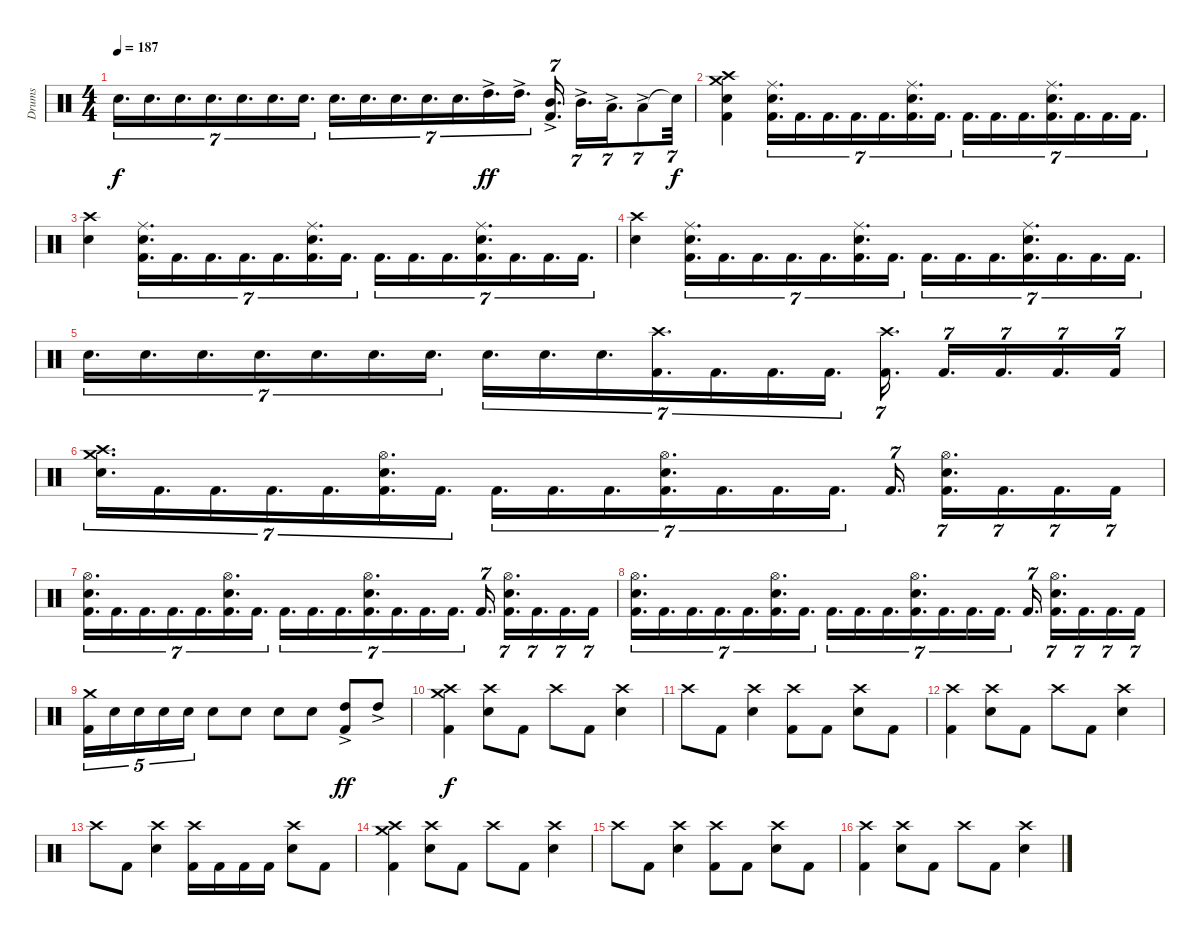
\track ("Drums" "Drums") {instrument percussion}
\staff {score}
\articulation defaults
\ts (4 4)
\tempo 187
\clef neutral
\ks c "Snare (hit) 2".16{d tu (7 4) dy f} "Snare (hit) 2".16{d tu (7 4)} "Snare (hit) 2".16{d tu (7 4)} "Snare (hit) 2".16{d tu (7 4)} "Snare (hit) 2".16{d tu (7 4)} "Snare (hit) 2".16{d tu (7 4)} "Snare (hit) 2".16{d tu (7 4)} "Snare (hit) 2".16{d tu (7 4)} "Snare (hit) 2".16{d tu (7 4)} "Snare (hit) 2".16{d tu (7 4)} "Snare (hit) 2".16{d tu (7 4)} "Snare (hit) 2".16{d tu (7 4)} "High Tom (hit)"{ac}.16{d tu (7 4) dy ff} "High Tom (hit)"{ac}.16{d tu (7 4)}
("Mid Tom (hit)"{ac} "Kick (hit) 2").16{d tu (7 4)} "Mid Tom (hit)"{ac}.16{d tu (7 4)} "Low Tom (hit)"{ac}.16{d tu (7 4)} "Low Tom (hit)"{ac}.8{tu (7 4)} "Snare (hit)"{t}.32{tu (7 4) dy f} |
("Crash high (hit)" "Crash medium (hit)" "Kick (hit) 2" "Snare (hit) 2").4 ("Ride (middle)" "Snare (hit) 2" "Kick (hit) 2").16{d tu (7 4)} "Kick (hit) 2".16{d tu (7 4)} "Kick (hit) 2".16{d tu (7 4)} "Kick (hit) 2".16{d tu (7 4)} "Kick (hit) 2".16{d tu (7 4)} ("Ride (middle)" "Snare (hit) 2" "Kick (hit) 2").16{d tu (7 4)} "Kick (hit) 2".16{d tu (7 4)} "Kick (hit) 2".16{d tu (7 4)} "Kick (hit) 2".16{d tu (7 4)} "Kick (hit) 2".16{d tu (7 4)} ("Kick (hit) 2" "Snare (hit) 2" "Ride (middle)").16{d tu (7 4)} "Kick (hit) 2".16{d tu (7 4)} "Kick (hit) 2".16{d tu (7 4)} "Kick (hit) 2".16{d tu (7 4)} |
("Crash high (hit)" "Snare (hit) 2").4 ("Ride (middle)" "Snare (hit) 2" "Kick (hit) 2").16{d tu (7 4)} "Kick (hit) 2".16{d tu (7 4)} "Kick (hit) 2".16{d tu (7 4)} "Kick (hit) 2".16{d tu (7 4)} "Kick (hit) 2".16{d tu (7 4)} ("Ride (middle)" "Snare (hit) 2" "Kick (hit) 2").16{d tu (7 4)} "Kick (hit) 2".16{d tu (7 4)} "Kick (hit) 2".16{d tu (7 4)} "Kick (hit) 2".16{d tu (7 4)} "Kick (hit) 2".16{d tu (7 4)} ("Kick (hit) 2" "Snare (hit) 2" "Ride (middle)").16{d tu (7 4)} "Kick (hit) 2".16{d tu (7 4)} "Kick (hit) 2".16{d tu (7 4)} "Kick (hit) 2".16{d tu (7 4)} |
("Crash high (hit)" "Snare (hit) 2").4 ("Ride (middle)" "Snare (hit) 2" "Kick (hit) 2").16{d tu (7 4)} "Kick (hit) 2".16{d tu (7 4)} "Kick (hit) 2".16{d tu (7 4)} "Kick (hit) 2".16{d tu (7 4)} "Kick (hit) 2".16{d tu (7 4)} ("Ride (middle)" "Snare (hit) 2" "Kick (hit) 2").16{d tu (7 4)} "Kick (hit) 2".16{d tu (7 4)} "Kick (hit) 2".16{d tu (7 4)} "Kick (hit) 2".16{d tu (7 4)} "Kick (hit) 2".16{d tu (7 4)} ("Kick (hit) 2" "Snare (hit) 2" "Ride (middle)").16{d tu (7 4)} "Kick (hit) 2".16{d tu (7 4)} "Kick (hit) 2".16{d tu (7 4)} "Kick (hit) 2".16{d tu (7 4)} |
"Snare (hit) 2".16{d tu (7 4)} "Snare (hit) 2".16{d tu (7 4)} "Snare (hit) 2".16{d tu (7 4)} "Snare (hit) 2".16{d tu (7 4)} "Snare (hit) 2".16{d tu (7 4)} "Snare (hit) 2".16{d tu (7 4)} "Snare (hit) 2".16{d tu (7 4)} "Snare (hit) 2".16{d tu (7 4)} "Snare (hit) 2".16{d tu (7 4)} "Snare (hit) 2".16{d tu (7 4)} ("Kick (hit) 2" "Crash high (hit)").16{d tu (7 4)} "Kick (hit) 2".16{d tu (7 4)} "Kick (hit) 2".16{d tu (7 4)} "Kick (hit) 2".16{d tu (7 4)} ("Kick (hit) 2" "Crash high (hit)").16{d tu (7 4)} "Kick (hit) 2".16{d tu (7 4)} "Kick (hit) 2".16{d tu (7 4)} "Kick (hit) 2".16{d tu (7 4)} "Kick (hit) 2".16{tu (7 4)} |
("Crash high (hit)" "Snare (hit) 2" "Crash medium (hit)").16{d tu (7 4)} "Kick (hit) 2".16{d tu (7 4)} "Kick (hit) 2".16{d tu (7 4)} "Kick (hit) 2".16{d tu (7 4)} "Kick (hit) 2".16{d tu (7 4)} ("Snare (hit) 2" "Kick (hit) 2" "Hi-Hat (open)").16{d tu (7 4)} "Kick (hit) 2".16{d tu (7 4)} "Kick (hit) 2".16{d tu (7 4)} "Kick (hit) 2".16{d tu (7 4)} "Kick (hit) 2".16{d tu (7 4)} ("Hi-Hat (open)" "Snare (hit) 2" "Kick (hit) 2").16{d tu (7 4)} "Kick (hit) 2".16{d tu (7 4)} "Kick (hit) 2".16{d tu (7 4)} "Kick (hit) 2".16{d tu (7 4)} "Kick (hit) 2".16{d tu (7 4)} ("Kick (hit) 2" "Snare (hit) 2" "Hi-Hat (open)").16{d tu (7 4)} "Kick (hit) 2".16{d tu (7 4)} "Kick (hit) 2".16{d tu (7 4)} "Kick (hit) 2".16{tu (7 4)} |
("Hi-Hat (open)" "Snare (hit) 2" "Kick (hit) 2").16{d tu (7 4)} "Kick (hit) 2".16{d tu (7 4)} "Kick (hit) 2".16{d tu (7 4)} "Kick (hit) 2".16{d tu (7 4)} "Kick (hit) 2".16{d tu (7 4)} ("Snare (hit) 2" "Kick (hit) 2" "Hi-Hat (open)").16{d tu (7 4)} "Kick (hit) 2".16{d tu (7 4)} "Kick (hit) 2".16{d tu (7 4)} "Kick (hit) 2".16{d tu (7 4)} "Kick (hit) 2".16{d tu (7 4)} ("Hi-Hat (open)" "Snare (hit) 2" "Kick (hit) 2").16{d tu (7 4)} "Kick (hit) 2".16{d tu (7 4)} "Kick (hit) 2".16{d tu (7 4)} "Kick (hit) 2".16{d tu (7 4)} "Kick (hit) 2".16{d tu (7 4)} ("Kick (hit) 2" "Snare (hit) 2" "Hi-Hat (open)").16{d tu (7 4)} "Kick (hit) 2".16{d tu (7 4)} "Kick (hit) 2".16{d tu (7 4)} "Kick (hit) 2".16{tu (7 4)} |
("Hi-Hat (open)" "Snare (hit) 2" "Kick (hit) 2").16{d tu (7 4)} "Kick (hit) 2".16{d tu (7 4)} "Kick (hit) 2".16{d tu (7 4)} "Kick (hit) 2".16{d tu (7 4)} "Kick (hit) 2".16{d tu (7 4)} ("Snare (hit) 2" "Kick (hit) 2" "Hi-Hat (open)").16{d tu (7 4)} "Kick (hit) 2".16{d tu (7 4)} "Kick (hit) 2".16{d tu (7 4)} "Kick (hit) 2".16{d tu (7 4)} "Kick (hit) 2".16{d tu (7 4)} ("Hi-Hat (open)" "Snare (hit) 2" "Kick (hit) 2").16{d tu (7 4)} "Kick (hit) 2".16{d tu (7 4)} "Kick (hit) 2".16{d tu (7 4)} "Kick (hit) 2".16{d tu (7 4)} "Kick (hit) 2".16{d tu (7 4)} ("Kick (hit) 2" "Snare (hit) 2" "Hi-Hat (open)").16{d tu (7 4)} "Kick (hit) 2".16{d tu (7 4)} "Kick (hit) 2".16{d tu (7 4)} "Kick (hit) 2".16{tu (7 4)} |
("Crash medium (hit)" "Kick (hit) 2").16{tu (5 4)} "Snare (hit) 2".16{tu (5 4)} "Snare (hit) 2".16{tu (5 4)} "Snare (hit) 2".16{tu (5 4)} "Snare (hit) 2".16{tu (5 4)} "Snare (hit) 2".8 "Snare (hit) 2".8 "Snare (hit) 2".8 "Snare (hit) 2".8 ("Kick (hit) 2" "High Tom (hit)"{ac}).8{dy ff} "High Tom (hit)"{ac}.8 |
("Crash high (hit)" "Crash medium (hit)" "Kick (hit) 2").4{dy f} ("Snare (hit) 2" "Crash high (hit)").8 "Kick (hit) 2".8 "Crash high (hit)".8 "Kick (hit) 2".8 ("Crash high (hit)" "Snare (hit) 2").4 |
"Crash high (hit)".8 "Kick (hit) 2".8 ("Crash high (hit)" "Snare (hit) 2").4 ("Crash high (hit)" "Kick (hit) 2").8 "Kick (hit) 2".8 ("Crash high (hit)" "Snare (hit) 2").8 "Kick (hit) 2".8 |
("Crash high (hit)" "Kick (hit) 2").4 ("Snare (hit) 2" "Crash high (hit)").8 "Kick (hit) 2".8 "Crash high (hit)".8 "Kick (hit) 2".8 ("Crash high (hit)" "Snare (hit) 2").4 |
"Crash high (hit)".8 "Kick (hit) 2".8 ("Crash high (hit)" "Snare (hit) 2").4 ("Crash high (hit)" "Kick (hit) 2").16 "Kick (hit) 2".16 "Kick (hit) 2".16 "Kick (hit) 2".16 ("Crash high (hit)" "Snare (hit) 2").8 "Kick (hit) 2".8 |
("Crash high (hit)" "Crash medium (hit)" "Kick (hit) 2").4 ("Snare (hit) 2" "Crash high (hit)").8 "Kick (hit) 2".8 "Crash high (hit)".8 "Kick (hit) 2".8 ("Crash high (hit)" "Snare (hit) 2").4 |
"Crash high (hit)".8 "Kick (hit) 2".8 ("Crash high (hit)" "Snare (hit) 2").4 ("Crash high (hit)" "Kick (hit) 2").8 "Kick (hit) 2".8 ("Crash high (hit)" "Snare (hit) 2").8 "Kick (hit) 2".8 |
("Crash high (hit)" "Kick (hit) 2").4 ("Snare (hit) 2" "Crash high (hit)").8 "Kick (hit) 2".8 "Crash high (hit)".8 "Kick (hit) 2".8 ("Crash high (hit)" "Snare (hit) 2").4
